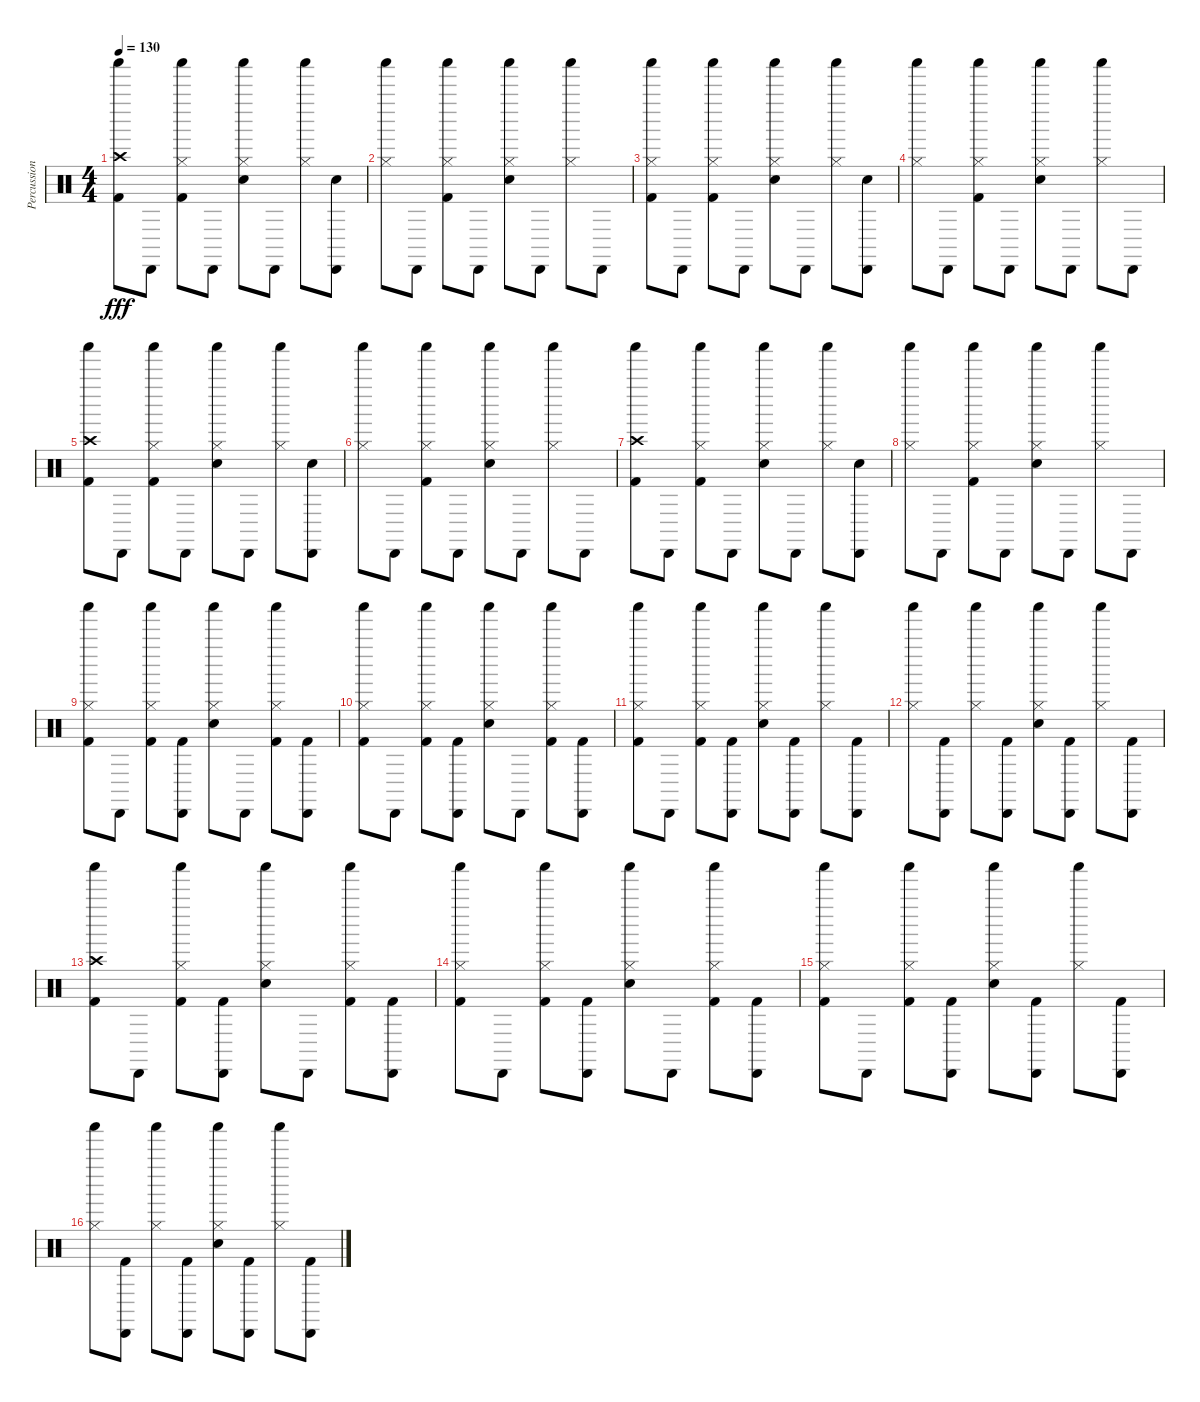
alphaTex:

\track ("Percussion" "Percussion") {instrument percussion}
\staff {score}
\articulation defaults
\ts (4 4)
\tempo 130
\clef neutral
\ks c
("Shaker (hit)" "Crash high (hit)" "Kick (hit) 2").8{dy fff} "Cabasa (hit)".8 ("Shaker (hit)" "Hi-Hat (closed)" "Kick (hit) 2").8 "Cabasa (hit)".8 ("Shaker (hit)" "Hi-Hat (closed)" "Snare (hit) 2").8 "Cabasa (hit)".8 ("Shaker (hit)" "Hi-Hat (closed)").8 ("Cabasa (hit)" "Snare (hit) 2").8 |
("Shaker (hit)" "Hi-Hat (closed)").8 "Cabasa (hit)".8 ("Shaker (hit)" "Hi-Hat (closed)" "Kick (hit) 2").8 "Cabasa (hit)".8 ("Shaker (hit)" "Hi-Hat (closed)" "Snare (hit) 2").8 "Cabasa (hit)".8 ("Shaker (hit)" "Hi-Hat (closed)").8 "Cabasa (hit)".8 |
("Shaker (hit)" "Hi-Hat (closed)" "Kick (hit) 2").8 "Cabasa (hit)".8 ("Shaker (hit)" "Hi-Hat (closed)" "Kick (hit) 2").8 "Cabasa (hit)".8 ("Shaker (hit)" "Hi-Hat (closed)" "Snare (hit) 2").8 "Cabasa (hit)".8 ("Shaker (hit)" "Hi-Hat (closed)").8 ("Cabasa (hit)" "Snare (hit) 2").8 |
("Shaker (hit)" "Hi-Hat (closed)").8 "Cabasa (hit)".8 ("Shaker (hit)" "Hi-Hat (closed)" "Kick (hit) 2").8 "Cabasa (hit)".8 ("Shaker (hit)" "Hi-Hat (closed)" "Snare (hit) 2").8 "Cabasa (hit)".8 ("Shaker (hit)" "Hi-Hat (closed)").8 "Cabasa (hit)".8 |
("Shaker (hit)" "Crash high (hit)" "Kick (hit) 2").8 "Cabasa (hit)".8 ("Shaker (hit)" "Hi-Hat (closed)" "Kick (hit) 2").8 "Cabasa (hit)".8 ("Shaker (hit)" "Hi-Hat (closed)" "Snare (hit) 2").8 "Cabasa (hit)".8 ("Shaker (hit)" "Hi-Hat (closed)").8 ("Cabasa (hit)" "Snare (hit) 2").8 |
("Shaker (hit)" "Hi-Hat (closed)").8 "Cabasa (hit)".8 ("Shaker (hit)" "Hi-Hat (closed)" "Kick (hit) 2").8 "Cabasa (hit)".8 ("Shaker (hit)" "Hi-Hat (closed)" "Snare (hit) 2").8 "Cabasa (hit)".8 ("Shaker (hit)" "Hi-Hat (closed)").8 "Cabasa (hit)".8 |
("Shaker (hit)" "Crash high (hit)" "Kick (hit) 2").8 "Cabasa (hit)".8 ("Shaker (hit)" "Hi-Hat (closed)" "Kick (hit) 2").8 "Cabasa (hit)".8 ("Shaker (hit)" "Hi-Hat (closed)" "Snare (hit) 2").8 "Cabasa (hit)".8 ("Shaker (hit)" "Hi-Hat (closed)").8 ("Cabasa (hit)" "Snare (hit) 2").8 |
("Shaker (hit)" "Hi-Hat (closed)").8 "Cabasa (hit)".8 ("Shaker (hit)" "Hi-Hat (closed)" "Kick (hit) 2").8 "Cabasa (hit)".8 ("Shaker (hit)" "Hi-Hat (closed)" "Snare (hit) 2").8 "Cabasa (hit)".8 ("Shaker (hit)" "Hi-Hat (closed)").8 "Cabasa (hit)".8 |
("Shaker (hit)" "Hi-Hat (closed)" "Kick (hit) 2").8 "Cabasa (hit)".8 ("Shaker (hit)" "Hi-Hat (closed)" "Kick (hit) 2").8 ("Cabasa (hit)" "Kick (hit) 2").8 ("Shaker (hit)" "Hi-Hat (closed)" "Snare (hit) 2").8 "Cabasa (hit)".8 ("Shaker (hit)" "Hi-Hat (closed)" "Kick (hit) 2").8 ("Cabasa (hit)" "Kick (hit) 2").8 |
("Shaker (hit)" "Hi-Hat (closed)" "Kick (hit) 2").8 "Cabasa (hit)".8 ("Shaker (hit)" "Hi-Hat (closed)" "Kick (hit) 2").8 ("Cabasa (hit)" "Kick (hit) 2").8 ("Shaker (hit)" "Hi-Hat (closed)" "Snare (hit) 2").8 "Cabasa (hit)".8 ("Shaker (hit)" "Hi-Hat (closed)" "Kick (hit) 2").8 ("Cabasa (hit)" "Kick (hit) 2").8 |
("Shaker (hit)" "Hi-Hat (closed)" "Kick (hit) 2").8 "Cabasa (hit)".8 ("Shaker (hit)" "Hi-Hat (closed)" "Kick (hit) 2").8 ("Cabasa (hit)" "Kick (hit) 2").8 ("Shaker (hit)" "Hi-Hat (closed)" "Snare (hit) 2").8 ("Cabasa (hit)" "Kick (hit) 2").8 ("Shaker (hit)" "Hi-Hat (closed)").8 ("Cabasa (hit)" "Kick (hit) 2").8 |
("Shaker (hit)" "Hi-Hat (closed)").8 ("Cabasa (hit)" "Kick (hit) 2").8 ("Shaker (hit)" "Hi-Hat (closed)").8 ("Cabasa (hit)" "Kick (hit) 2").8 ("Shaker (hit)" "Hi-Hat (closed)" "Snare (hit) 2").8 ("Cabasa (hit)" "Kick (hit) 2").8 ("Shaker (hit)" "Hi-Hat (closed)").8 ("Cabasa (hit)" "Kick (hit) 2").8 |
("Shaker (hit)" "Crash high (hit)" "Kick (hit) 2").8 "Cabasa (hit)".8 ("Shaker (hit)" "Hi-Hat (closed)" "Kick (hit) 2").8 ("Cabasa (hit)" "Kick (hit) 2").8 ("Shaker (hit)" "Hi-Hat (closed)" "Snare (hit) 2").8 "Cabasa (hit)".8 ("Shaker (hit)" "Hi-Hat (closed)" "Kick (hit) 2").8 ("Cabasa (hit)" "Kick (hit) 2").8 |
("Shaker (hit)" "Hi-Hat (closed)" "Kick (hit) 2").8 "Cabasa (hit)".8 ("Shaker (hit)" "Hi-Hat (closed)" "Kick (hit) 2").8 ("Cabasa (hit)" "Kick (hit) 2").8 ("Shaker (hit)" "Hi-Hat (closed)" "Snare (hit) 2").8 "Cabasa (hit)".8 ("Shaker (hit)" "Hi-Hat (closed)" "Kick (hit) 2").8 ("Cabasa (hit)" "Kick (hit) 2").8 |
("Shaker (hit)" "Hi-Hat (closed)" "Kick (hit) 2").8 "Cabasa (hit)".8 ("Shaker (hit)" "Hi-Hat (closed)" "Kick (hit) 2").8 ("Cabasa (hit)" "Kick (hit) 2").8 ("Shaker (hit)" "Hi-Hat (closed)" "Snare (hit) 2").8 ("Cabasa (hit)" "Kick (hit) 2").8 ("Shaker (hit)" "Hi-Hat (closed)").8 ("Cabasa (hit)" "Kick (hit) 2").8 |
("Shaker (hit)" "Hi-Hat (closed)").8 ("Cabasa (hit)" "Kick (hit) 2").8 ("Shaker (hit)" "Hi-Hat (closed)").8 ("Cabasa (hit)" "Kick (hit) 2").8 ("Shaker (hit)" "Hi-Hat (closed)" "Snare (hit) 2").8 ("Cabasa (hit)" "Kick (hit) 2").8 ("Shaker (hit)" "Hi-Hat (closed)").8 ("Cabasa (hit)" "Kick (hit) 2").8
